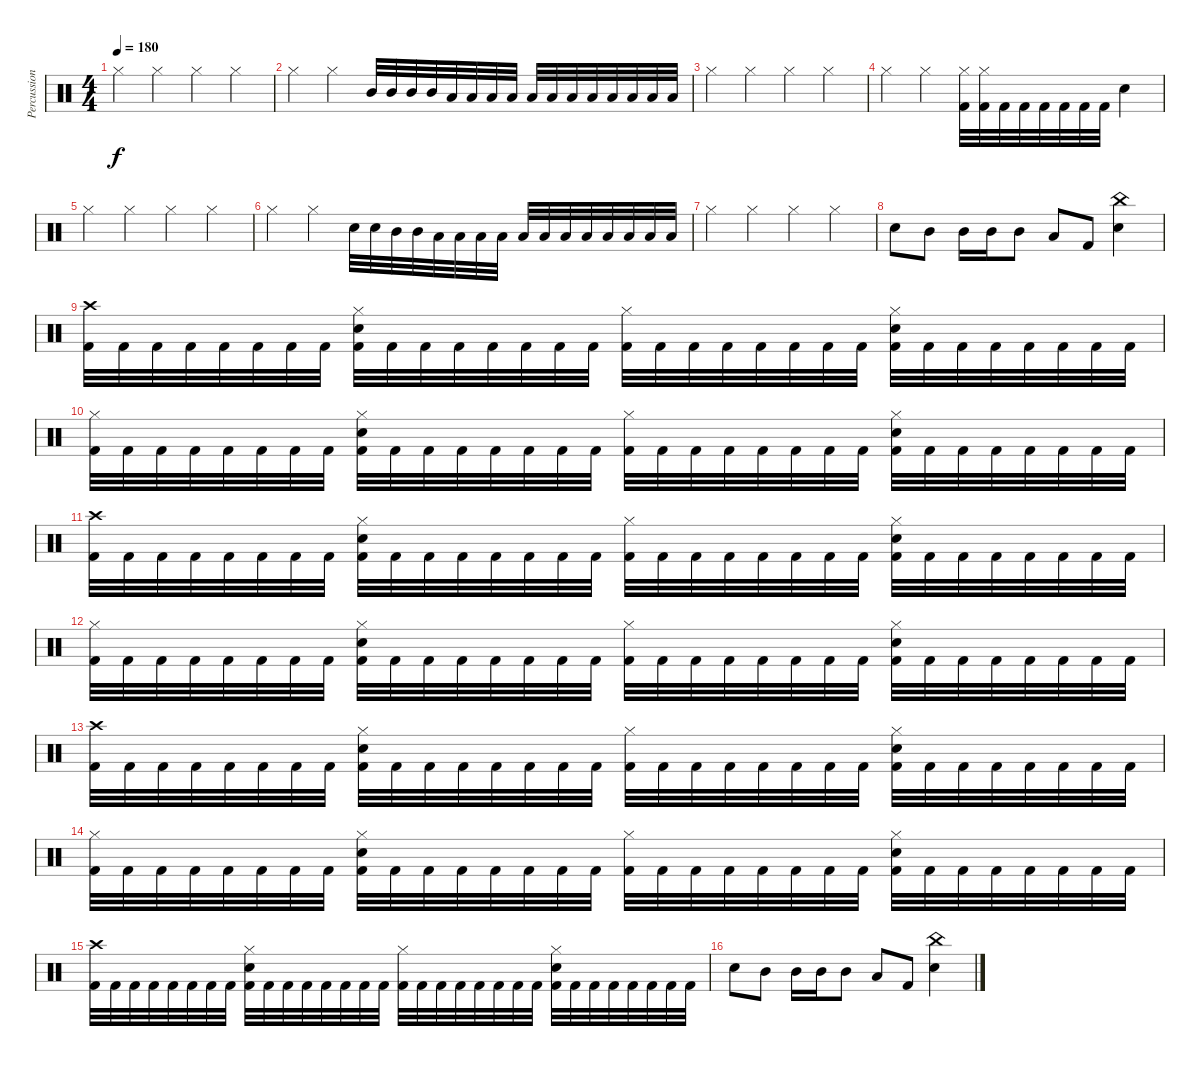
\track ("Percussions" "Percussion") {instrument percussion}
\staff {score}
\articulation defaults
\ts (4 4)
\tempo 180
\clef neutral
\ks c "Hi-Hat (closed)".4{dy f} "Hi-Hat (closed)".4 "Hi-Hat (closed)".4 "Hi-Hat (closed)".4
|
"Hi-Hat (closed)".4 "Hi-Hat (closed)".4 "Mid Tom (hit)".32 "Mid Tom (hit)".32 "Mid Tom (hit)".32 "Mid Tom (hit)".32 "Low Tom (hit)".32 "Low Tom (hit)".32 "Low Tom (hit)".32 "Low Tom (hit)".32 "Low Floor Tom (hit)".32 "Low Floor Tom (hit)".32 "Low Floor Tom (hit)".32 "Low Floor Tom (hit)".32 "Low Floor Tom (hit)".32 "Low Floor Tom (hit)".32 "Low Floor Tom (hit)".32 "Low Floor Tom (hit)".32 |
"Hi-Hat (closed)".4 "Hi-Hat (closed)".4 "Hi-Hat (closed)".4 "Hi-Hat (closed)".4 |
"Hi-Hat (closed)".4 "Hi-Hat (closed)".4 ("Hi-Hat (closed)" "Kick (hit) 2").32 ("Hi-Hat (closed)" "Kick (hit) 2").32 "Kick (hit) 2".32 "Kick (hit) 2".32 "Kick (hit) 2".32 "Kick (hit) 2".32 "Kick (hit) 2".32 "Kick (hit) 2".32 "Snare (hit) 2".4 |
"Hi-Hat (closed)".4 "Hi-Hat (closed)".4 "Hi-Hat (closed)".4 "Hi-Hat (closed)".4 |
"Hi-Hat (closed)".4 "Hi-Hat (closed)".4 "Snare (hit) 2".32 "Snare (hit) 2".32 "Mid Tom (hit)".32 "Mid Tom (hit)".32 "Low Tom (hit)".32 "Low Tom (hit)".32 "Low Tom (hit)".32 "Low Tom (hit)".32 "Low Floor Tom (hit)".32 "Low Floor Tom (hit)".32 "Low Floor Tom (hit)".32 "Low Floor Tom (hit)".32 "Low Floor Tom (hit)".32 "Low Floor Tom (hit)".32 "Low Floor Tom (hit)".32 "Low Floor Tom (hit)".32 |
"Hi-Hat (closed)".4 "Hi-Hat (closed)".4 "Hi-Hat (closed)".4 "Hi-Hat (closed)".4 |
"Snare (hit) 2".8 "Mid Tom (hit)".8 "Mid Tom (hit)".16 "Mid Tom (hit)".16 "Mid Tom (hit)".8 "Low Tom (hit)".8 "Kick (hit) 2".8 ("China (hit)" "Snare (hit) 2").4 |
("Crash high (hit)" "Kick (hit) 2").32 "Kick (hit) 2".32 "Kick (hit) 2".32 "Kick (hit) 2".32 "Kick (hit) 2".32 "Kick (hit) 2".32 "Kick (hit) 2".32 "Kick (hit) 2".32 ("Hi-Hat (closed)" "Snare (hit) 2" "Kick (hit) 2").32 "Kick (hit) 2".32 "Kick (hit) 2".32 "Kick (hit) 2".32 "Kick (hit) 2".32 "Kick (hit) 2".32 "Kick (hit) 2".32 "Kick (hit) 2".32 ("Hi-Hat (closed)" "Kick (hit) 2").32 "Kick (hit) 2".32 "Kick (hit) 2".32 "Kick (hit) 2".32 "Kick (hit) 2".32 "Kick (hit) 2".32 "Kick (hit) 2".32 "Kick (hit) 2".32 ("Hi-Hat (closed)" "Snare (hit) 2" "Kick (hit) 2").32 "Kick (hit) 2".32 "Kick (hit) 2".32 "Kick (hit) 2".32 "Kick (hit) 2".32 "Kick (hit) 2".32 "Kick (hit) 2".32 "Kick (hit) 2".32 |
("Hi-Hat (closed)" "Kick (hit) 2").32 "Kick (hit) 2".32 "Kick (hit) 2".32 "Kick (hit) 2".32 "Kick (hit) 2".32 "Kick (hit) 2".32 "Kick (hit) 2".32 "Kick (hit) 2".32 ("Hi-Hat (closed)" "Snare (hit) 2" "Kick (hit) 2").32 "Kick (hit) 2".32 "Kick (hit) 2".32 "Kick (hit) 2".32 "Kick (hit) 2".32 "Kick (hit) 2".32 "Kick (hit) 2".32 "Kick (hit) 2".32 ("Hi-Hat (closed)" "Kick (hit) 2").32 "Kick (hit) 2".32 "Kick (hit) 2".32 "Kick (hit) 2".32 "Kick (hit) 2".32 "Kick (hit) 2".32 "Kick (hit) 2".32 "Kick (hit) 2".32 ("Hi-Hat (closed)" "Snare (hit) 2" "Kick (hit) 2").32 "Kick (hit) 2".32 "Kick (hit) 2".32 "Kick (hit) 2".32 "Kick (hit) 2".32 "Kick (hit) 2".32 "Kick (hit) 2".32 "Kick (hit) 2".32 |
("Crash high (hit)" "Kick (hit) 2").32 "Kick (hit) 2".32 "Kick (hit) 2".32 "Kick (hit) 2".32 "Kick (hit) 2".32 "Kick (hit) 2".32 "Kick (hit) 2".32 "Kick (hit) 2".32 ("Hi-Hat (closed)" "Snare (hit) 2" "Kick (hit) 2").32 "Kick (hit) 2".32 "Kick (hit) 2".32 "Kick (hit) 2".32 "Kick (hit) 2".32 "Kick (hit) 2".32 "Kick (hit) 2".32 "Kick (hit) 2".32 ("Hi-Hat (closed)" "Kick (hit) 2").32 "Kick (hit) 2".32 "Kick (hit) 2".32 "Kick (hit) 2".32 "Kick (hit) 2".32 "Kick (hit) 2".32 "Kick (hit) 2".32 "Kick (hit) 2".32 ("Hi-Hat (closed)" "Snare (hit) 2" "Kick (hit) 2").32 "Kick (hit) 2".32 "Kick (hit) 2".32 "Kick (hit) 2".32 "Kick (hit) 2".32 "Kick (hit) 2".32 "Kick (hit) 2".32 "Kick (hit) 2".32 |
("Hi-Hat (closed)" "Kick (hit) 2").32 "Kick (hit) 2".32 "Kick (hit) 2".32 "Kick (hit) 2".32 "Kick (hit) 2".32 "Kick (hit) 2".32 "Kick (hit) 2".32 "Kick (hit) 2".32 ("Hi-Hat (closed)" "Snare (hit) 2" "Kick (hit) 2").32 "Kick (hit) 2".32 "Kick (hit) 2".32 "Kick (hit) 2".32 "Kick (hit) 2".32 "Kick (hit) 2".32 "Kick (hit) 2".32 "Kick (hit) 2".32 ("Hi-Hat (closed)" "Kick (hit) 2").32 "Kick (hit) 2".32 "Kick (hit) 2".32 "Kick (hit) 2".32 "Kick (hit) 2".32 "Kick (hit) 2".32 "Kick (hit) 2".32 "Kick (hit) 2".32 ("Hi-Hat (closed)" "Snare (hit) 2" "Kick (hit) 2").32 "Kick (hit) 2".32 "Kick (hit) 2".32 "Kick (hit) 2".32 "Kick (hit) 2".32 "Kick (hit) 2".32 "Kick (hit) 2".32 "Kick (hit) 2".32 |
("Crash high (hit)" "Kick (hit) 2").32 "Kick (hit) 2".32 "Kick (hit) 2".32 "Kick (hit) 2".32 "Kick (hit) 2".32 "Kick (hit) 2".32 "Kick (hit) 2".32 "Kick (hit) 2".32 ("Hi-Hat (closed)" "Snare (hit) 2" "Kick (hit) 2").32 "Kick (hit) 2".32 "Kick (hit) 2".32 "Kick (hit) 2".32 "Kick (hit) 2".32 "Kick (hit) 2".32 "Kick (hit) 2".32 "Kick (hit) 2".32 ("Hi-Hat (closed)" "Kick (hit) 2").32 "Kick (hit) 2".32 "Kick (hit) 2".32 "Kick (hit) 2".32 "Kick (hit) 2".32 "Kick (hit) 2".32 "Kick (hit) 2".32 "Kick (hit) 2".32 ("Hi-Hat (closed)" "Snare (hit) 2" "Kick (hit) 2").32 "Kick (hit) 2".32 "Kick (hit) 2".32 "Kick (hit) 2".32 "Kick (hit) 2".32 "Kick (hit) 2".32 "Kick (hit) 2".32 "Kick (hit) 2".32 |
("Hi-Hat (closed)" "Kick (hit) 2").32 "Kick (hit) 2".32 "Kick (hit) 2".32 "Kick (hit) 2".32 "Kick (hit) 2".32 "Kick (hit) 2".32 "Kick (hit) 2".32 "Kick (hit) 2".32 ("Hi-Hat (closed)" "Snare (hit) 2" "Kick (hit) 2").32 "Kick (hit) 2".32 "Kick (hit) 2".32 "Kick (hit) 2".32 "Kick (hit) 2".32 "Kick (hit) 2".32 "Kick (hit) 2".32 "Kick (hit) 2".32 ("Hi-Hat (closed)" "Kick (hit) 2").32 "Kick (hit) 2".32 "Kick (hit) 2".32 "Kick (hit) 2".32 "Kick (hit) 2".32 "Kick (hit) 2".32 "Kick (hit) 2".32 "Kick (hit) 2".32 ("Hi-Hat (closed)" "Snare (hit) 2" "Kick (hit) 2").32 "Kick (hit) 2".32 "Kick (hit) 2".32 "Kick (hit) 2".32 "Kick (hit) 2".32 "Kick (hit) 2".32 "Kick (hit) 2".32 "Kick (hit) 2".32 |
("Crash high (hit)" "Kick (hit) 2").32 "Kick (hit) 2".32 "Kick (hit) 2".32 "Kick (hit) 2".32 "Kick (hit) 2".32 "Kick (hit) 2".32 "Kick (hit) 2".32 "Kick (hit) 2".32 ("Hi-Hat (closed)" "Snare (hit) 2" "Kick (hit) 2").32 "Kick (hit) 2".32 "Kick (hit) 2".32 "Kick (hit) 2".32 "Kick (hit) 2".32 "Kick (hit) 2".32 "Kick (hit) 2".32 "Kick (hit) 2".32 ("Hi-Hat (closed)" "Kick (hit) 2").32 "Kick (hit) 2".32 "Kick (hit) 2".32 "Kick (hit) 2".32 "Kick (hit) 2".32 "Kick (hit) 2".32 "Kick (hit) 2".32 "Kick (hit) 2".32 ("Hi-Hat (closed)" "Snare (hit) 2" "Kick (hit) 2").32 "Kick (hit) 2".32 "Kick (hit) 2".32 "Kick (hit) 2".32 "Kick (hit) 2".32 "Kick (hit) 2".32 "Kick (hit) 2".32 "Kick (hit) 2".32 |
"Snare (hit) 2".8 "Mid Tom (hit)".8 "Mid Tom (hit)".16 "Mid Tom (hit)".16 "Mid Tom (hit)".8 "Low Tom (hit)".8 "Kick (hit) 2".8 ("China (hit)" "Snare (hit) 2").4
